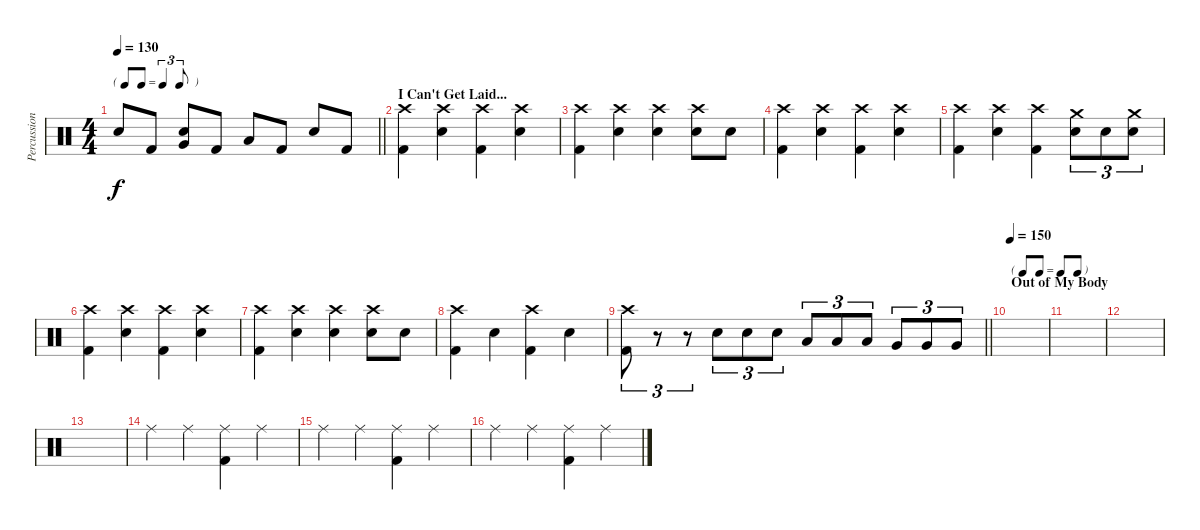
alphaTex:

\track ("Percussion" "Percussion") {instrument percussion}
\staff {score}
\articulation defaults
\ts (4 4)
\tf triplet8th
\tempo 130
\clef neutral
\barLineRight lightlight
\ks c "Snare (hit) 2".8{dy f} "Kick (hit) 2".8
("Snare (hit) 2" "Very Low Tom (hit)").8 "Kick (hit) 2".8 "Low Floor Tom (hit)".8 "Kick (hit) 2".8 "Snare (hit) 2".8 "Kick (hit) 2".8 |
\section ("" "I Can't Get Laid...")
("Crash high (hit)" "Kick (hit) 2").4 ("Crash high (hit)" "Snare (hit) 2").4 ("Crash high (hit)" "Kick (hit) 2").4 ("Crash high (hit)" "Snare (hit) 2").4 |
("Crash high (hit)" "Kick (hit) 2").4 ("Crash high (hit)" "Snare (hit) 2").4 ("Crash high (hit)" "Snare (hit) 2").4 ("Crash high (hit)" "Snare (hit) 2").8 "Snare (hit) 2".8 |
("Crash high (hit)" "Kick (hit) 2").4 ("Crash high (hit)" "Snare (hit) 2").4 ("Crash high (hit)" "Kick (hit) 2").4 ("Crash high (hit)" "Snare (hit) 2").4 |
("Crash high (hit)" "Kick (hit) 2").4 ("Crash high (hit)" "Snare (hit) 2").4 ("Crash high (hit)" "Kick (hit) 2").4 ("Crash medium (hit)" "Snare (hit) 2").8{tu (3 2)} "Snare (hit) 2".8{tu (3 2)} ("Crash medium (hit)" "Snare (hit) 2").8{tu (3 2)} |
("Crash high (hit)" "Kick (hit) 2").4 ("Crash high (hit)" "Snare (hit) 2").4 ("Crash high (hit)" "Kick (hit) 2").4 ("Crash high (hit)" "Snare (hit) 2").4 |
("Crash high (hit)" "Kick (hit) 2").4 ("Crash high (hit)" "Snare (hit) 2").4 ("Crash high (hit)" "Snare (hit) 2").4 ("Crash high (hit)" "Snare (hit) 2").8 "Snare (hit) 2".8 |
("Crash high (hit)" "Kick (hit) 2").4 "Snare (hit) 2".4 ("Crash high (hit)" "Kick (hit) 2").4 "Snare (hit) 2".4 |
\barLineRight lightlight
("Crash high (hit)" "Kick (hit) 2").8{tu (3 2)} r.8{tu (3 2)} r.8{tu (3 2)} "Snare (hit) 2".8{tu (3 2)} "Snare (hit) 2".8{tu (3 2)} "Snare (hit) 2".8{tu (3 2)} "Low Tom (hit)".8{tu (3 2)} "Low Tom (hit)".8{tu (3 2)} "Low Tom (hit)".8{tu (3 2)} "Very Low Tom (hit)".8{tu (3 2)} "Very Low Tom (hit)".8{tu (3 2)} "Very Low Tom (hit)".8{tu (3 2)} |
\tf none
\section ("" "Out of My Body")
\tempo 150
|
|
|
|
"Ride (middle)".4 "Ride (middle)".4 ("Ride (middle)" "Kick (hit) 2").4 "Ride (middle)".4 |
"Ride (middle)".4 "Ride (middle)".4 ("Ride (middle)" "Kick (hit) 2").4 "Ride (middle)".4 |
"Ride (middle)".4 "Ride (middle)".4 ("Ride (middle)" "Kick (hit) 2").4 "Ride (middle)".4
